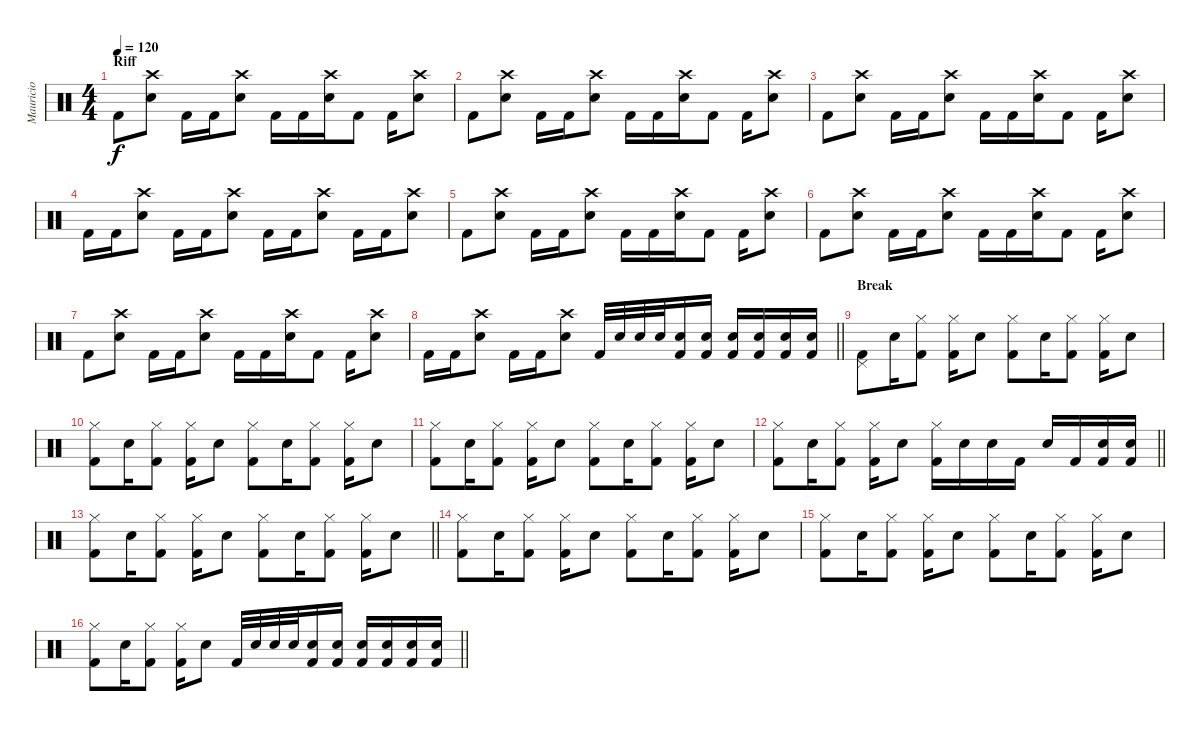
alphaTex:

\track ("Mauricio" "Mauricio") {instrument percussion}
\staff {score}
\articulation defaults
\ts (4 4)
\section ("" "Riff")
\tempo 120
\clef neutral
\ks c "Kick (hit) 2".8{dy f}
("Crash high (hit)" "Electric Snare (hit)").8 "Kick (hit) 2".16 "Kick (hit) 2".16 ("Crash high (hit)" "Electric Snare (hit)").8 "Kick (hit) 2".16 "Kick (hit) 2".16 ("Crash high (hit)" "Electric Snare (hit)").16 "Kick (hit) 2".8 "Kick (hit) 2".16 ("Crash high (hit)" "Electric Snare (hit)").8 |
"Kick (hit) 2".8 ("Crash high (hit)" "Electric Snare (hit)").8 "Kick (hit) 2".16 "Kick (hit) 2".16 ("Crash high (hit)" "Electric Snare (hit)").8 "Kick (hit) 2".16 "Kick (hit) 2".16 ("Crash high (hit)" "Electric Snare (hit)").16 "Kick (hit) 2".8 "Kick (hit) 2".16 ("Crash high (hit)" "Electric Snare (hit)").8 |
"Kick (hit) 2".8 ("Crash high (hit)" "Electric Snare (hit)").8 "Kick (hit) 2".16 "Kick (hit) 2".16 ("Crash high (hit)" "Electric Snare (hit)").8 "Kick (hit) 2".16 "Kick (hit) 2".16 ("Crash high (hit)" "Electric Snare (hit)").16 "Kick (hit) 2".8 "Kick (hit) 2".16 ("Crash high (hit)" "Electric Snare (hit)").8 |
"Kick (hit) 2".16 "Kick (hit) 2".16 ("Crash high (hit)" "Electric Snare (hit)").8 "Kick (hit) 2".16 "Kick (hit) 2".16 ("Crash high (hit)" "Electric Snare (hit)").8 "Kick (hit) 2".16 "Kick (hit) 2".16 ("Crash high (hit)" "Electric Snare (hit)").8 "Kick (hit) 2".16 "Kick (hit) 2".16 ("Crash high (hit)" "Electric Snare (hit)").8 |
"Kick (hit) 2".8 ("Crash high (hit)" "Electric Snare (hit)").8 "Kick (hit) 2".16 "Kick (hit) 2".16 ("Crash high (hit)" "Electric Snare (hit)").8 "Kick (hit) 2".16 "Kick (hit) 2".16 ("Crash high (hit)" "Electric Snare (hit)").16 "Kick (hit) 2".8 "Kick (hit) 2".16 ("Crash high (hit)" "Electric Snare (hit)").8 |
"Kick (hit) 2".8 ("Crash high (hit)" "Electric Snare (hit)").8 "Kick (hit) 2".16 "Kick (hit) 2".16 ("Crash high (hit)" "Electric Snare (hit)").8 "Kick (hit) 2".16 "Kick (hit) 2".16 ("Crash high (hit)" "Electric Snare (hit)").16 "Kick (hit) 2".8 "Kick (hit) 2".16 ("Crash high (hit)" "Electric Snare (hit)").8 |
"Kick (hit) 2".8 ("Crash high (hit)" "Electric Snare (hit)").8 "Kick (hit) 2".16 "Kick (hit) 2".16 ("Crash high (hit)" "Electric Snare (hit)").8 "Kick (hit) 2".16 "Kick (hit) 2".16 ("Crash high (hit)" "Electric Snare (hit)").16 "Kick (hit) 2".8 "Kick (hit) 2".16 ("Crash high (hit)" "Electric Snare (hit)").8 |
\barLineRight lightlight "Kick (hit) 2".16 "Kick (hit) 2".16
("Crash high (hit)" "Electric Snare (hit)").8 "Kick (hit) 2".16 "Kick (hit) 2".16 ("Crash high (hit)" "Electric Snare (hit)").8 "Kick (hit) 2".32 "Electric Snare (hit)".32 "Electric Snare (hit)".32 "Electric Snare (hit)".32 ("Kick (hit) 2" "Electric Snare (hit)").16 ("Kick (hit) 2" "Electric Snare (hit)").16 ("Kick (hit) 2" "Electric Snare (hit)").16 ("Kick (hit) 2" "Electric Snare (hit)").16 ("Kick (hit) 2" "Electric Snare (hit)").16 ("Kick (hit) 2" "Electric Snare (hit)").16 |
\section ("" "Break")
("Pedal Hi-Hat (hit)" "Kick (hit) 2").8 "Electric Snare (hit)".16 ("Hi-Hat (closed)" "Kick (hit) 2").8 ("Hi-Hat (closed)" "Kick (hit) 2").16 "Electric Snare (hit)".8 ("Hi-Hat (closed)" "Kick (hit) 2").8 "Electric Snare (hit)".16 ("Hi-Hat (closed)" "Kick (hit) 2").8 ("Hi-Hat (closed)" "Kick (hit) 2").16 "Electric Snare (hit)".8 |
("Hi-Hat (closed)" "Kick (hit) 2").8 "Electric Snare (hit)".16 ("Hi-Hat (closed)" "Kick (hit) 2").8 ("Hi-Hat (closed)" "Kick (hit) 2").16 "Electric Snare (hit)".8 ("Hi-Hat (closed)" "Kick (hit) 2").8 "Electric Snare (hit)".16 ("Hi-Hat (closed)" "Kick (hit) 2").8 ("Hi-Hat (closed)" "Kick (hit) 2").16 "Electric Snare (hit)".8 |
("Hi-Hat (closed)" "Kick (hit) 2").8 "Electric Snare (hit)".16 ("Hi-Hat (closed)" "Kick (hit) 2").8 ("Hi-Hat (closed)" "Kick (hit) 2").16 "Electric Snare (hit)".8 ("Hi-Hat (closed)" "Kick (hit) 2").8 "Electric Snare (hit)".16 ("Hi-Hat (closed)" "Kick (hit) 2").8 ("Hi-Hat (closed)" "Kick (hit) 2").16 "Electric Snare (hit)".8 |
\barLineRight lightlight
("Hi-Hat (closed)" "Kick (hit) 2").8 "Electric Snare (hit)".16 ("Hi-Hat (closed)" "Kick (hit) 2").8 ("Hi-Hat (closed)" "Kick (hit) 2").16 "Electric Snare (hit)".8 ("Hi-Hat (closed)" "Kick (hit) 2").16 "Electric Snare (hit)".16 "Electric Snare (hit)".16 "Kick (hit) 2".16 "Electric Snare (hit)".16 "Kick (hit) 2".16 ("Kick (hit) 2" "Electric Snare (hit)").16 ("Kick (hit) 2" "Electric Snare (hit)").16 |
\barLineRight lightlight
("Hi-Hat (closed)" "Kick (hit) 2").8 "Electric Snare (hit)".16 ("Hi-Hat (closed)" "Kick (hit) 2").8 ("Hi-Hat (closed)" "Kick (hit) 2").16 "Electric Snare (hit)".8 ("Hi-Hat (closed)" "Kick (hit) 2").8 "Electric Snare (hit)".16 ("Hi-Hat (closed)" "Kick (hit) 2").8 ("Hi-Hat (closed)" "Kick (hit) 2").16 "Electric Snare (hit)".8 |
("Hi-Hat (closed)" "Kick (hit) 2").8 "Electric Snare (hit)".16 ("Hi-Hat (closed)" "Kick (hit) 2").8 ("Hi-Hat (closed)" "Kick (hit) 2").16 "Electric Snare (hit)".8 ("Hi-Hat (closed)" "Kick (hit) 2").8 "Electric Snare (hit)".16 ("Hi-Hat (closed)" "Kick (hit) 2").8 ("Hi-Hat (closed)" "Kick (hit) 2").16 "Electric Snare (hit)".8 |
("Hi-Hat (closed)" "Kick (hit) 2").8 "Electric Snare (hit)".16 ("Hi-Hat (closed)" "Kick (hit) 2").8 ("Hi-Hat (closed)" "Kick (hit) 2").16 "Electric Snare (hit)".8 ("Hi-Hat (closed)" "Kick (hit) 2").8 "Electric Snare (hit)".16 ("Hi-Hat (closed)" "Kick (hit) 2").8 ("Hi-Hat (closed)" "Kick (hit) 2").16 "Electric Snare (hit)".8 |
\barLineRight lightlight
("Hi-Hat (closed)" "Kick (hit) 2").8 "Electric Snare (hit)".16 ("Hi-Hat (closed)" "Kick (hit) 2").8 ("Hi-Hat (closed)" "Kick (hit) 2").16 "Electric Snare (hit)".8 "Kick (hit) 2".32 "Electric Snare (hit)".32 "Electric Snare (hit)".32 "Electric Snare (hit)".32 ("Kick (hit) 2" "Electric Snare (hit)").16 ("Kick (hit) 2" "Electric Snare (hit)").16 ("Kick (hit) 2" "Electric Snare (hit)").16 ("Kick (hit) 2" "Electric Snare (hit)").16 ("Kick (hit) 2" "Electric Snare (hit)").16 ("Kick (hit) 2" "Electric Snare (hit)").16
